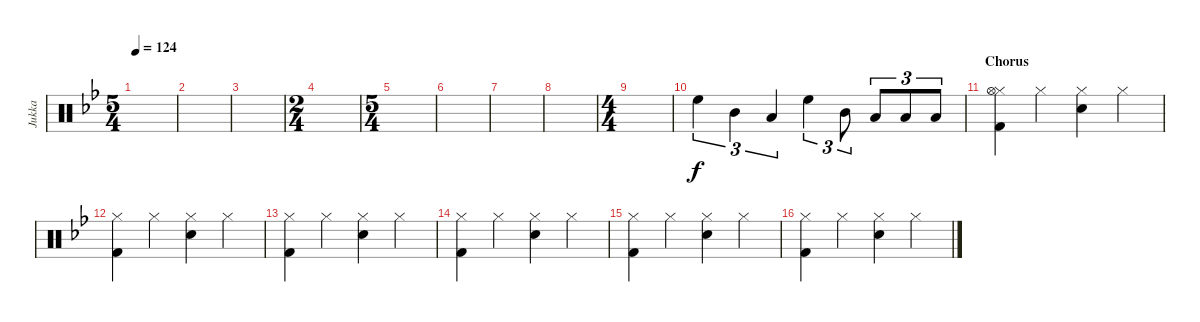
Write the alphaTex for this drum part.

\track ("Jukka" "Jukka") {instrument percussion}
\staff {score}
\articulation defaults
\ts (5 4)
\tempo 124
\clef neutral
\ks bb
|
|
|
\ts (2 4)
|
\ts (5 4)
|
|
|
|
\ts (4 4)
|
"High Floor Tom (hit)".4{tu (3 2)} "Mid Tom (hit)".4{tu (3 2)} "Low Tom (hit)".4{tu (3 2)} "High Floor Tom (hit)".4{tu (3 2)} "Mid Tom (hit)".8{tu (3 2)} "Low Tom (hit)".8{tu (3 2)} "Low Tom (hit)".8{tu (3 2)} "Low Floor Tom (hit)".8{tu (3 2)} |
\section ("" "Chorus")
("Hi-Hat (closed)" "Hi-Hat (open)" "Kick (hit) 2").4 "Hi-Hat (closed)".4 ("Hi-Hat (closed)" "Snare (hit) 2").4 "Hi-Hat (closed)".4 |
("Hi-Hat (closed)" "Kick (hit) 2").4 "Hi-Hat (closed)".4 ("Hi-Hat (closed)" "Snare (hit) 2").4 "Hi-Hat (closed)".4 |
("Hi-Hat (closed)" "Kick (hit) 2").4 "Hi-Hat (closed)".4 ("Hi-Hat (closed)" "Snare (hit) 2").4 "Hi-Hat (closed)".4 |
("Hi-Hat (closed)" "Kick (hit) 2").4 "Hi-Hat (closed)".4 ("Hi-Hat (closed)" "Snare (hit) 2").4 "Hi-Hat (closed)".4 |
("Hi-Hat (closed)" "Kick (hit) 2").4 "Hi-Hat (closed)".4 ("Hi-Hat (closed)" "Snare (hit) 2").4 "Hi-Hat (closed)".4 |
("Hi-Hat (closed)" "Kick (hit) 2").4 "Hi-Hat (closed)".4 ("Hi-Hat (closed)" "Snare (hit) 2").4 "Hi-Hat (closed)".4
